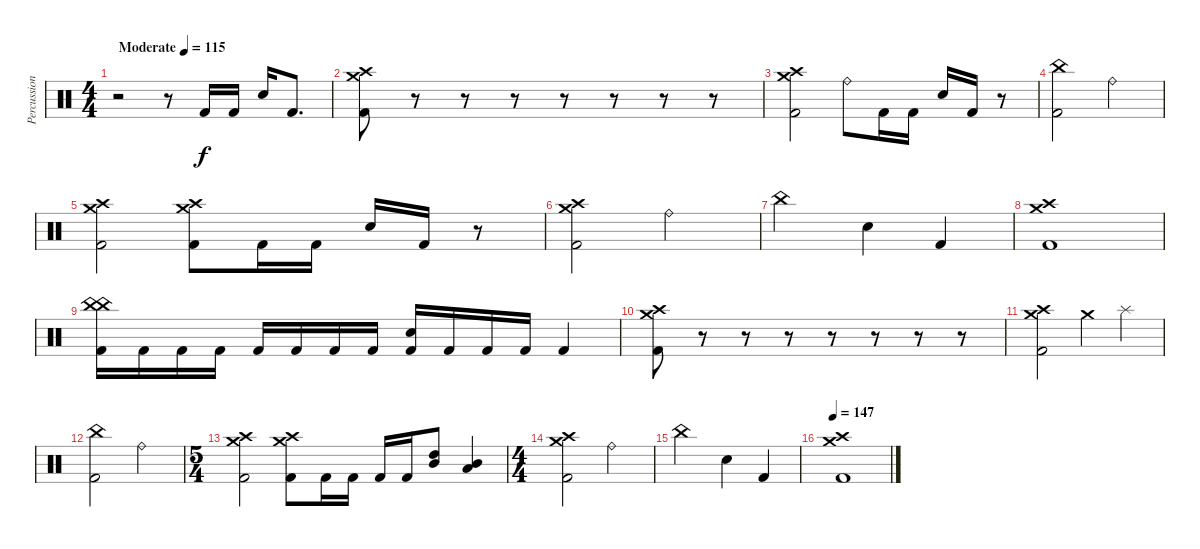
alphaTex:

\track ("Percussion" "Percussion") {instrument percussion}
\staff {score}
\articulation defaults
\ts (4 4)
\tempo (115 "Moderate")
\clef neutral
\ks c
r.2{dy f} r.8 "Kick (hit) 2".16 "Kick (hit) 2".16 "Electric Snare (hit)".16 "Kick (hit) 2".8{d} |
("Crash medium (hit)" "Crash high (hit)" "Kick (hit) 2").8 r.8 r.8 r.8 r.8 r.8 r.8 r.8 |
("Crash medium (hit)" "Crash high (hit)" "Kick (hit) 2").2 "Ride (bell)".8 "Kick (hit) 2".16 "Kick (hit) 2".16 "Electric Snare (hit)".16 "Kick (hit) 2".16 r.8 |
("China (hit)" "Kick (hit) 2").2 "Ride (bell)".2 |
("Crash medium (hit)" "Crash high (hit)" "Kick (hit) 2").2 ("Crash medium (hit)" "Crash high (hit)" "Kick (hit) 2").8 "Kick (hit) 2".16 "Kick (hit) 2".16 "Electric Snare (hit)".16 "Kick (hit) 2".16 r.8 |
("Crash medium (hit)" "Crash high (hit)" "Kick (hit) 2").2 "Ride (bell)".2 |
"China (hit)".2 "Electric Snare (hit)".4 "Kick (hit) 2".4 |
("Crash medium (hit)" "Crash high (hit)" "Kick (hit) 2").1 |
("China (hit)" "China (hit)" "Kick (hit) 2").16 "Kick (hit) 2".16 "Kick (hit) 2".16 "Kick (hit) 2".16 "Kick (hit) 2".16 "Kick (hit) 2".16 "Kick (hit) 2".16 "Kick (hit) 2".16 ("Electric Snare (hit)" "Kick (hit) 2").16 "Kick (hit) 2".16 "Kick (hit) 2".16 "Kick (hit) 2".16 "Kick (hit) 2".4 |
("Crash medium (hit)" "Crash high (hit)" "Kick (hit) 2").8 r.8 r.8 r.8 r.8 r.8 r.8 r.8 |
("Crash medium (hit)" "Crash high (hit)" "Kick (hit) 2").2 "Crash medium (hit)".4 "Splash (hit)".4 |
("China (hit)" "Kick (hit) 2").2 "Ride (bell)".2 |
\ts (5 4)
("Crash medium (hit)" "Crash high (hit)" "Kick (hit) 2").2 ("Crash medium (hit)" "Crash high (hit)" "Kick (hit) 2").8 "Kick (hit) 2".16 "Kick (hit) 2".16 "Kick (hit) 2".16 "Kick (hit) 2".16 ("High Tom (hit)" "Mid Tom (hit)").8 ("Low Tom (hit)" "Mid Tom (hit)").4 |
\ts (4 4)
("Crash medium (hit)" "Crash high (hit)" "Kick (hit) 2").2 "Ride (bell)".2 |
"China (hit)".2 "Electric Snare (hit)".4 "Kick (hit) 2".4 |
\tempo 147
("Crash medium (hit)" "Crash high (hit)" "Kick (hit) 2").1
